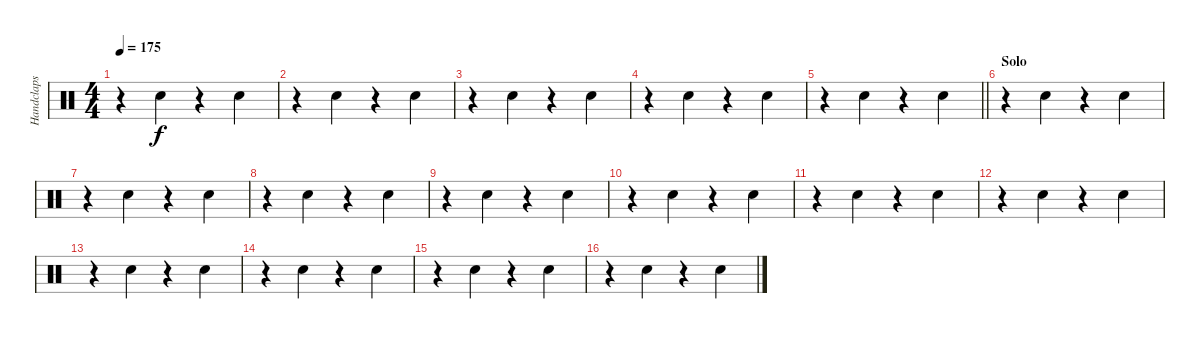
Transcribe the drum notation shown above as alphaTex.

\track ("Handclaps" "Handclaps") {instrument percussion}
\staff {score}
\articulation defaults
\ts (4 4)
\tempo 175
\clef neutral
\ks c
r.4{dy f} "Hand Clap (hit)".4 r.4 "Hand Clap (hit)".4 |
r.4 "Hand Clap (hit)".4 r.4 "Hand Clap (hit)".4 |
r.4 "Hand Clap (hit)".4 r.4 "Hand Clap (hit)".4 |
r.4 "Hand Clap (hit)".4 r.4 "Hand Clap (hit)".4 |
\barLineRight lightlight
r.4 "Hand Clap (hit)".4 r.4 "Hand Clap (hit)".4 |
\section ("" "Solo")
r.4 "Hand Clap (hit)".4 r.4 "Hand Clap (hit)".4 |
r.4 "Hand Clap (hit)".4 r.4 "Hand Clap (hit)".4 |
r.4 "Hand Clap (hit)".4 r.4 "Hand Clap (hit)".4 |
r.4 "Hand Clap (hit)".4 r.4 "Hand Clap (hit)".4 |
r.4 "Hand Clap (hit)".4 r.4 "Hand Clap (hit)".4 |
r.4 "Hand Clap (hit)".4 r.4 "Hand Clap (hit)".4 |
r.4 "Hand Clap (hit)".4 r.4 "Hand Clap (hit)".4 |
r.4 "Hand Clap (hit)".4 r.4 "Hand Clap (hit)".4 |
r.4 "Hand Clap (hit)".4 r.4 "Hand Clap (hit)".4 |
r.4 "Hand Clap (hit)".4 r.4 "Hand Clap (hit)".4 |
r.4 "Hand Clap (hit)".4 r.4 "Hand Clap (hit)".4
